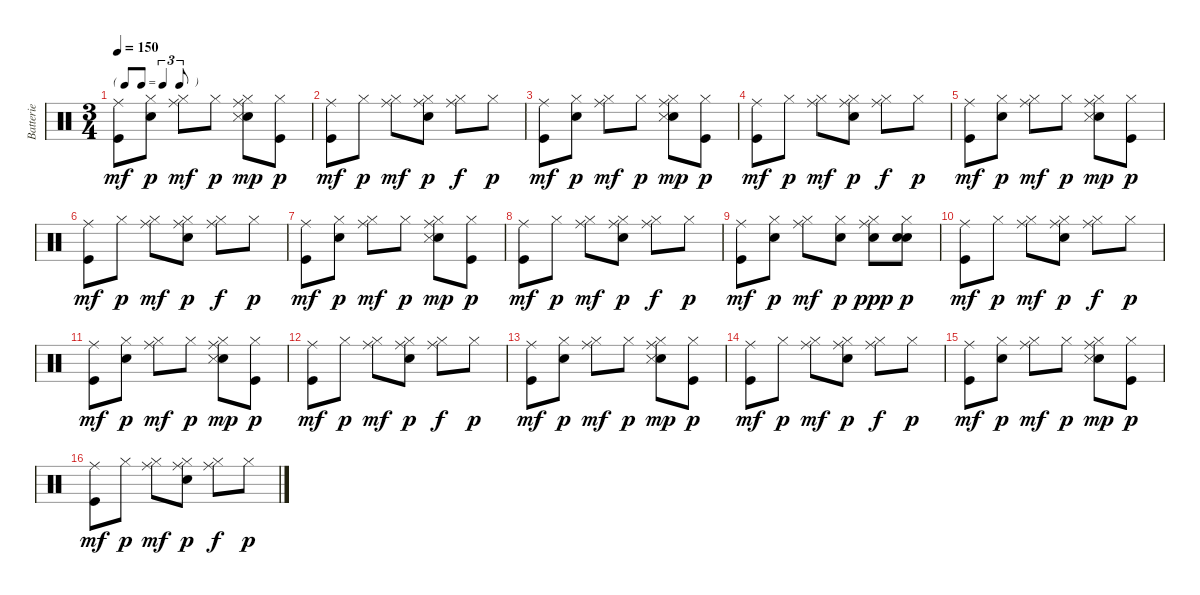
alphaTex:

\track ("Batterie" "Batterie") {instrument percussion}
\staff {score}
\articulation defaults
\ts (3 4)
\tf triplet8th
\tempo 150
\clef neutral
\ks c
("Kick (hit)" "Ride (middle)").8{dy mf} ("Snare (hit) 2" "Hi-Hat (closed)").8{dy p} ("Hi-Hat (closed)" "Ride (middle)").8{dy mf} "Hi-Hat (closed)".8{dy p} ("Snare (hit) 2" "Hi-Hat (closed)" "Snare (side stick) 3" "Ride (middle)").8{dy mp} ("Kick (hit)" "Hi-Hat (closed)").8{dy p} |
("Kick (hit)" "Ride (middle)").8{dy mf} "Hi-Hat (closed)".8{dy p} ("Hi-Hat (closed)" "Ride (middle)").8{dy mf} ("Snare (hit) 2" "Hi-Hat (closed)" "Ride (middle)").8{dy p} ("Hi-Hat (closed)" "Ride (middle)").8{dy f} "Hi-Hat (closed)".8{dy p} |
("Kick (hit)" "Ride (middle)").8{dy mf} ("Snare (hit) 2" "Hi-Hat (closed)").8{dy p} ("Hi-Hat (closed)" "Ride (middle)").8{dy mf} "Hi-Hat (closed)".8{dy p} ("Snare (hit) 2" "Hi-Hat (closed)" "Snare (side stick) 3" "Ride (middle)").8{dy mp} ("Kick (hit)" "Hi-Hat (closed)").8{dy p} |
("Kick (hit)" "Ride (middle)").8{dy mf} "Hi-Hat (closed)".8{dy p} ("Hi-Hat (closed)" "Ride (middle)").8{dy mf} ("Snare (hit) 2" "Hi-Hat (closed)" "Ride (middle)").8{dy p} ("Hi-Hat (closed)" "Ride (middle)").8{dy f} "Hi-Hat (closed)".8{dy p} |
("Kick (hit)" "Ride (middle)").8{dy mf} ("Snare (hit) 2" "Hi-Hat (closed)").8{dy p} ("Hi-Hat (closed)" "Ride (middle)").8{dy mf} "Hi-Hat (closed)".8{dy p} ("Snare (hit) 2" "Hi-Hat (closed)" "Snare (side stick) 3" "Ride (middle)").8{dy mp} ("Kick (hit)" "Hi-Hat (closed)").8{dy p} |
("Kick (hit)" "Ride (middle)").8{dy mf} "Hi-Hat (closed)".8{dy p} ("Hi-Hat (closed)" "Ride (middle)").8{dy mf} ("Snare (hit) 2" "Hi-Hat (closed)" "Ride (middle)").8{dy p} ("Hi-Hat (closed)" "Ride (middle)").8{dy f} "Hi-Hat (closed)".8{dy p} |
("Kick (hit)" "Ride (middle)").8{dy mf} ("Snare (hit) 2" "Hi-Hat (closed)").8{dy p} ("Hi-Hat (closed)" "Ride (middle)").8{dy mf} "Hi-Hat (closed)".8{dy p} ("Snare (hit) 2" "Hi-Hat (closed)" "Snare (side stick) 3" "Ride (middle)").8{dy mp} ("Kick (hit)" "Hi-Hat (closed)").8{dy p} |
("Kick (hit)" "Ride (middle)").8{dy mf} "Hi-Hat (closed)".8{dy p} ("Hi-Hat (closed)" "Ride (middle)").8{dy mf} ("Snare (hit) 2" "Hi-Hat (closed)" "Ride (middle)").8{dy p} ("Hi-Hat (closed)" "Ride (middle)").8{dy f} "Hi-Hat (closed)".8{dy p} |
("Kick (hit)" "Ride (middle)").8{dy mf} ("Snare (hit) 2" "Hi-Hat (closed)").8{dy p} ("Hi-Hat (closed)" "Ride (middle)").8{dy mf} ("Snare (hit) 2" "Hi-Hat (closed)").8{dy p} ("Snare (hit) 2" "Hi-Hat (closed)" "Ride (middle)").8{dy ppp} ("Snare (hit) 2" "Snare (hit) 2" "Hi-Hat (closed)").8{dy p} |
("Kick (hit)" "Ride (middle)").8{dy mf} "Hi-Hat (closed)".8{dy p} ("Hi-Hat (closed)" "Ride (middle)").8{dy mf} ("Snare (hit) 2" "Hi-Hat (closed)" "Ride (middle)").8{dy p} ("Hi-Hat (closed)" "Ride (middle)").8{dy f} "Hi-Hat (closed)".8{dy p} |
("Kick (hit)" "Ride (middle)").8{dy mf} ("Snare (hit) 2" "Hi-Hat (closed)").8{dy p} ("Hi-Hat (closed)" "Ride (middle)").8{dy mf} "Hi-Hat (closed)".8{dy p} ("Snare (hit) 2" "Hi-Hat (closed)" "Snare (side stick) 3" "Ride (middle)").8{dy mp} ("Kick (hit)" "Hi-Hat (closed)").8{dy p} |
("Kick (hit)" "Ride (middle)").8{dy mf} "Hi-Hat (closed)".8{dy p} ("Hi-Hat (closed)" "Ride (middle)").8{dy mf} ("Snare (hit) 2" "Hi-Hat (closed)" "Ride (middle)").8{dy p} ("Hi-Hat (closed)" "Ride (middle)").8{dy f} "Hi-Hat (closed)".8{dy p} |
("Kick (hit)" "Ride (middle)").8{dy mf} ("Snare (hit) 2" "Hi-Hat (closed)").8{dy p} ("Hi-Hat (closed)" "Ride (middle)").8{dy mf} "Hi-Hat (closed)".8{dy p} ("Snare (hit) 2" "Hi-Hat (closed)" "Snare (side stick) 3" "Ride (middle)").8{dy mp} ("Kick (hit)" "Hi-Hat (closed)").8{dy p} |
("Kick (hit)" "Ride (middle)").8{dy mf} "Hi-Hat (closed)".8{dy p} ("Hi-Hat (closed)" "Ride (middle)").8{dy mf} ("Snare (hit) 2" "Hi-Hat (closed)" "Ride (middle)").8{dy p} ("Hi-Hat (closed)" "Ride (middle)").8{dy f} "Hi-Hat (closed)".8{dy p} |
("Kick (hit)" "Ride (middle)").8{dy mf} ("Snare (hit) 2" "Hi-Hat (closed)").8{dy p} ("Hi-Hat (closed)" "Ride (middle)").8{dy mf} "Hi-Hat (closed)".8{dy p} ("Snare (hit) 2" "Hi-Hat (closed)" "Snare (side stick) 3" "Ride (middle)").8{dy mp} ("Kick (hit)" "Hi-Hat (closed)").8{dy p} |
("Kick (hit)" "Ride (middle)").8{dy mf} "Hi-Hat (closed)".8{dy p} ("Hi-Hat (closed)" "Ride (middle)").8{dy mf} ("Snare (hit) 2" "Hi-Hat (closed)" "Ride (middle)").8{dy p} ("Hi-Hat (closed)" "Ride (middle)").8{dy f} "Hi-Hat (closed)".8{dy p}
